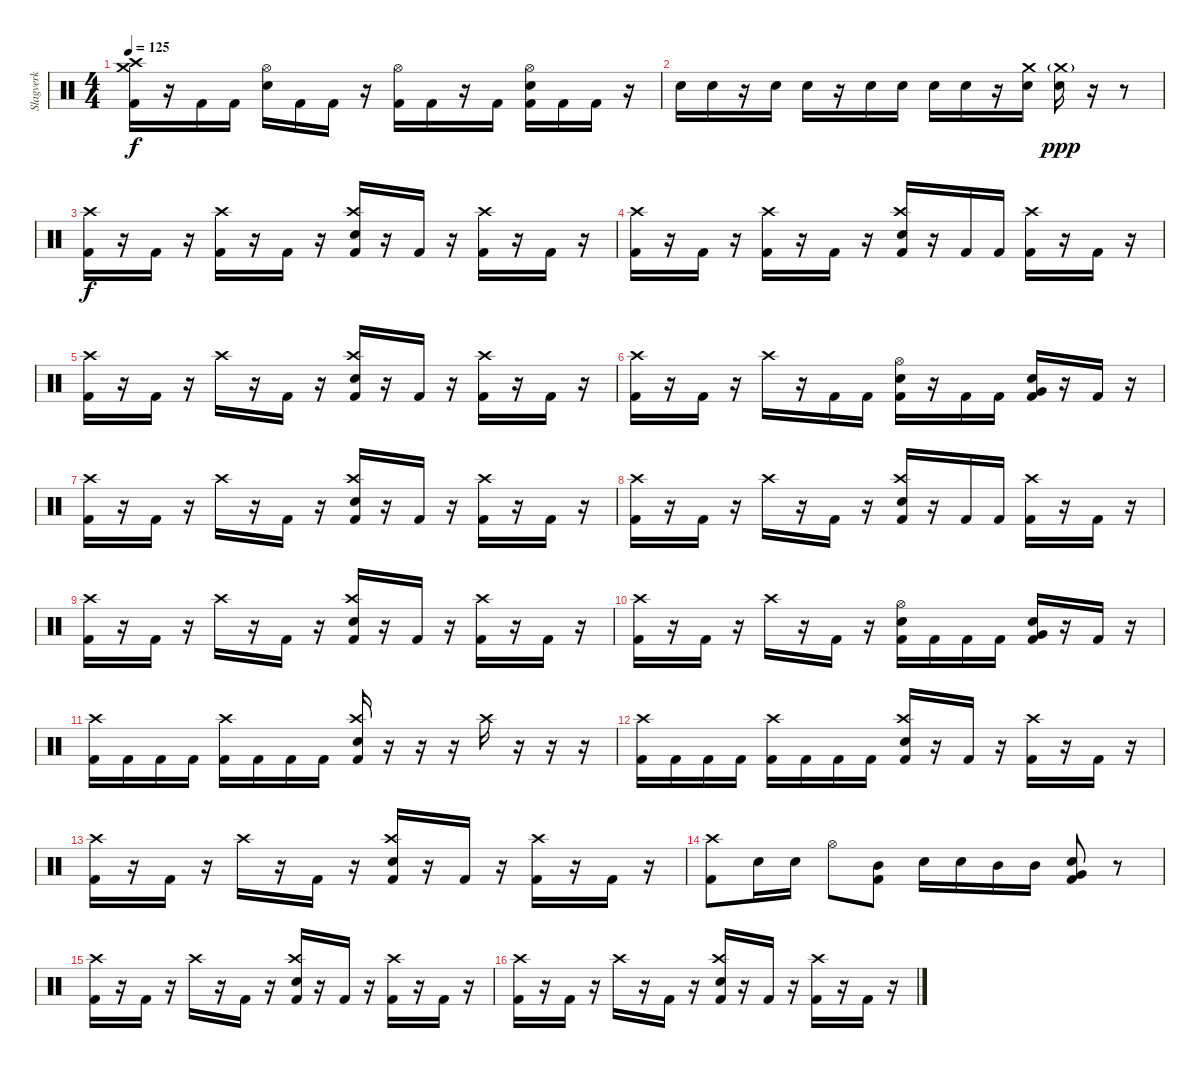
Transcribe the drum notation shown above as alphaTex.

\track ("Slagverk" "Slagverk") {instrument percussion}
\staff {score}
\articulation defaults
\ts (4 4)
\tempo 125
\clef neutral
\ks c
("Kick (hit) 2" "Crash high (hit)" "Crash medium (hit)").16{dy f} r.16 "Kick (hit) 2".16 "Kick (hit) 2".16 ("Snare (hit) 2" "Hi-Hat (open)").16 "Kick (hit) 2".16 "Kick (hit) 2".16 r.16 ("Kick (hit) 2" "Hi-Hat (open)").16 "Kick (hit) 2".16 r.16 "Kick (hit) 2".16 ("Kick (hit) 2" "Snare (hit) 2" "Hi-Hat (open)").16 "Kick (hit) 2".16 "Kick (hit) 2".16 r.16 |
"Snare (hit) 2".16 "Snare (hit) 2".16 r.16 "Snare (hit) 2".16 "Snare (hit) 2".16 r.16 "Snare (hit) 2".16 "Snare (hit) 2".16 "Snare (hit) 2".16 "Snare (hit) 2".16 r.16 ("Snare (hit) 2" "Crash medium (hit)").16 ("Snare (hit) 2" "Crash medium (hit)"{g}).16{dy ppp} r.16 r.8 |
("Kick (hit) 2" "Crash high (hit)").16{dy f} r.16 "Kick (hit) 2".16 r.16 ("Kick (hit) 2" "Crash high (hit)").16 r.16 "Kick (hit) 2".16 r.16 ("Kick (hit) 2" "Snare (hit) 2" "Crash high (hit)").16 r.16 "Kick (hit) 2".16 r.16 ("Kick (hit) 2" "Crash high (hit)").16 r.16 "Kick (hit) 2".16 r.16 |
("Kick (hit) 2" "Crash high (hit)").16 r.16 "Kick (hit) 2".16 r.16 ("Kick (hit) 2" "Crash high (hit)").16 r.16 "Kick (hit) 2".16 r.16 ("Kick (hit) 2" "Snare (hit) 2" "Crash high (hit)").16 r.16 "Kick (hit) 2".16 "Kick (hit) 2".16 ("Kick (hit) 2" "Crash high (hit)").16 r.16 "Kick (hit) 2".16 r.16 |
("Kick (hit) 2" "Crash high (hit)").16 r.16 "Kick (hit) 2".16 r.16 "Crash high (hit)".16 r.16 "Kick (hit) 2".16 r.16 ("Kick (hit) 2" "Snare (hit) 2" "Crash high (hit)").16 r.16 "Kick (hit) 2".16 r.16 ("Kick (hit) 2" "Crash high (hit)").16 r.16 "Kick (hit) 2".16 r.16 |
("Kick (hit) 2" "Crash high (hit)").16 r.16 "Kick (hit) 2".16 r.16 "Crash high (hit)".16 r.16 "Kick (hit) 2".16 "Kick (hit) 2".16 ("Kick (hit) 2" "Snare (hit) 2" "Hi-Hat (open)").16 r.16 "Kick (hit) 2".16 "Kick (hit) 2".16 ("Kick (hit) 2" "Snare (hit) 2" "Very Low Tom (hit)").16 r.16 "Kick (hit) 2".16 r.16 |
("Kick (hit) 2" "Crash high (hit)").16 r.16 "Kick (hit) 2".16 r.16 "Crash high (hit)".16 r.16 "Kick (hit) 2".16 r.16 ("Kick (hit) 2" "Snare (hit) 2" "Crash high (hit)").16 r.16 "Kick (hit) 2".16 r.16 ("Kick (hit) 2" "Crash high (hit)").16 r.16 "Kick (hit) 2".16 r.16 |
("Kick (hit) 2" "Crash high (hit)").16 r.16 "Kick (hit) 2".16 r.16 "Crash high (hit)".16 r.16 "Kick (hit) 2".16 r.16 ("Kick (hit) 2" "Snare (hit) 2" "Crash high (hit)").16 r.16 "Kick (hit) 2".16 "Kick (hit) 2".16 ("Kick (hit) 2" "Crash high (hit)").16 r.16 "Kick (hit) 2".16 r.16 |
("Kick (hit) 2" "Crash high (hit)").16 r.16 "Kick (hit) 2".16 r.16 "Crash high (hit)".16 r.16 "Kick (hit) 2".16 r.16 ("Kick (hit) 2" "Snare (hit) 2" "Crash high (hit)").16 r.16 "Kick (hit) 2".16 r.16 ("Kick (hit) 2" "Crash high (hit)").16 r.16 "Kick (hit) 2".16 r.16 |
("Kick (hit) 2" "Crash high (hit)").16 r.16 "Kick (hit) 2".16 r.16 "Crash high (hit)".16 r.16 "Kick (hit) 2".16 r.16 ("Kick (hit) 2" "Snare (hit) 2" "Hi-Hat (open)").16 "Kick (hit) 2".16 "Kick (hit) 2".16 "Kick (hit) 2".16 ("Kick (hit) 2" "Snare (hit) 2" "Very Low Tom (hit)").16 r.16 "Kick (hit) 2".16 r.16 |
("Kick (hit) 2" "Crash high (hit)").16 "Kick (hit) 2".16 "Kick (hit) 2".16 "Kick (hit) 2".16 ("Kick (hit) 2" "Crash high (hit)").16 "Kick (hit) 2".16 "Kick (hit) 2".16 "Kick (hit) 2".16 ("Kick (hit) 2" "Snare (hit) 2" "Crash high (hit)").16 r.16 r.16 r.16 "Crash high (hit)".16 r.16 r.16 r.16 |
("Kick (hit) 2" "Crash high (hit)").16 "Kick (hit) 2".16 "Kick (hit) 2".16 "Kick (hit) 2".16 ("Kick (hit) 2" "Crash high (hit)").16 "Kick (hit) 2".16 "Kick (hit) 2".16 "Kick (hit) 2".16 ("Kick (hit) 2" "Snare (hit) 2" "Crash high (hit)").16 r.16 "Kick (hit) 2".16 r.16 ("Kick (hit) 2" "Crash high (hit)").16 r.16 "Kick (hit) 2".16 r.16 |
("Kick (hit) 2" "Crash high (hit)").16 r.16 "Kick (hit) 2".16 r.16 "Crash high (hit)".16 r.16 "Kick (hit) 2".16 r.16 ("Kick (hit) 2" "Snare (hit) 2" "Crash high (hit)").16 r.16 "Kick (hit) 2".16 r.16 ("Kick (hit) 2" "Crash high (hit)").16 r.16 "Kick (hit) 2".16 r.16 |
("Kick (hit) 2" "Crash high (hit)").8 "Snare (hit) 2".16 "Snare (hit) 2".16 "Hi-Hat (open)".8 ("Kick (hit) 2" "Mid Tom (hit)").8 "Snare (hit) 2".16 "Snare (hit) 2".16 "Mid Tom (hit)".16 "Mid Tom (hit)".16 ("Kick (hit) 2" "Very Low Tom (hit)" "Snare (hit) 2").8 r.8 |
("Kick (hit) 2" "Crash high (hit)").16 r.16 "Kick (hit) 2".16 r.16 "Crash high (hit)".16 r.16 "Kick (hit) 2".16 r.16 ("Kick (hit) 2" "Snare (hit) 2" "Crash high (hit)").16 r.16 "Kick (hit) 2".16 r.16 ("Kick (hit) 2" "Crash high (hit)").16 r.16 "Kick (hit) 2".16 r.16 |
("Kick (hit) 2" "Crash high (hit)").16 r.16 "Kick (hit) 2".16 r.16 "Crash high (hit)".16 r.16 "Kick (hit) 2".16 r.16 ("Kick (hit) 2" "Snare (hit) 2" "Crash high (hit)").16 r.16 "Kick (hit) 2".16 r.16 ("Kick (hit) 2" "Crash high (hit)").16 r.16 "Kick (hit) 2".16 r.16
